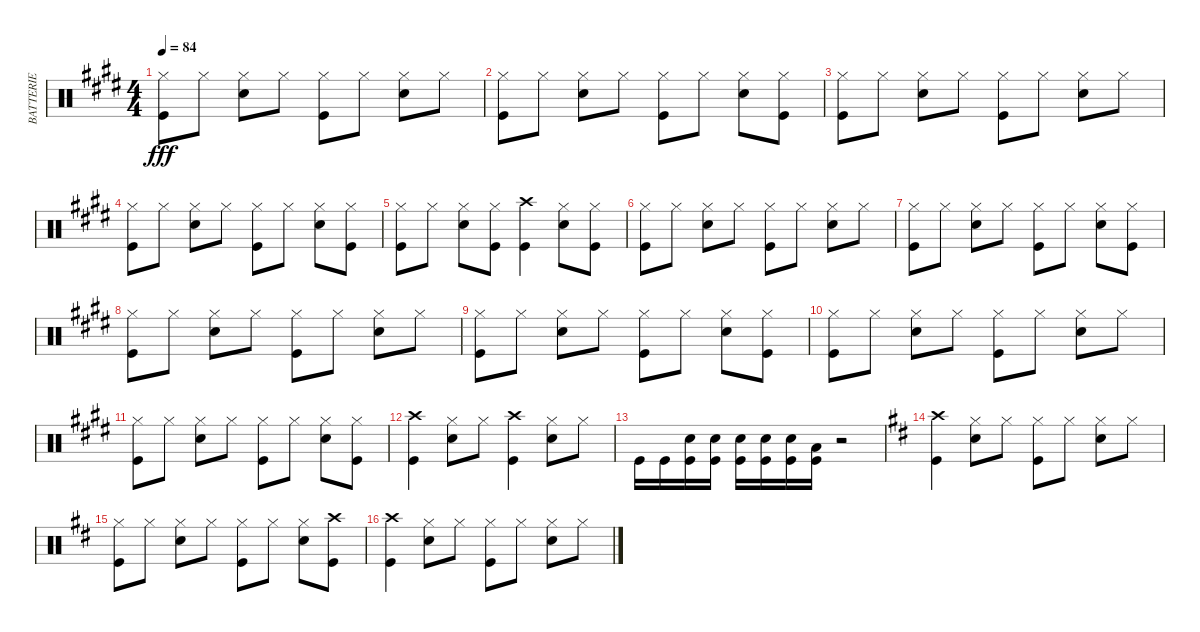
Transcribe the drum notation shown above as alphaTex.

\track ("BATTERIE" "BATTERIE") {instrument percussion}
\staff {score}
\articulation defaults
\ts (4 4)
\tempo 84
\clef neutral
\ks e
("Hi-Hat (closed)" "Kick (hit)").8{dy fff} "Hi-Hat (closed)".8 ("Hi-Hat (closed)" "Snare (hit) 2").8 "Hi-Hat (closed)".8 ("Hi-Hat (closed)" "Kick (hit)").8 "Hi-Hat (closed)".8 ("Hi-Hat (closed)" "Snare (hit) 2").8 "Hi-Hat (closed)".8 |
("Hi-Hat (closed)" "Kick (hit)").8 "Hi-Hat (closed)".8 ("Hi-Hat (closed)" "Snare (hit) 2").8 "Hi-Hat (closed)".8 ("Hi-Hat (closed)" "Kick (hit)").8 "Hi-Hat (closed)".8 ("Hi-Hat (closed)" "Snare (hit) 2").8 ("Hi-Hat (closed)" "Kick (hit)").8 |
("Hi-Hat (closed)" "Kick (hit)").8 "Hi-Hat (closed)".8 ("Hi-Hat (closed)" "Snare (hit) 2").8 "Hi-Hat (closed)".8 ("Hi-Hat (closed)" "Kick (hit)").8 "Hi-Hat (closed)".8 ("Hi-Hat (closed)" "Snare (hit) 2").8 "Hi-Hat (closed)".8 |
("Hi-Hat (closed)" "Kick (hit)").8 "Hi-Hat (closed)".8 ("Hi-Hat (closed)" "Snare (hit) 2").8 "Hi-Hat (closed)".8 ("Hi-Hat (closed)" "Kick (hit)").8 "Hi-Hat (closed)".8 ("Hi-Hat (closed)" "Snare (hit) 2").8 ("Hi-Hat (closed)" "Kick (hit)").8 |
("Hi-Hat (closed)" "Kick (hit)").8 "Hi-Hat (closed)".8 ("Hi-Hat (closed)" "Snare (hit) 2").8 ("Hi-Hat (closed)" "Kick (hit)").8 ("Crash high (hit)" "Kick (hit)").4 ("Hi-Hat (closed)" "Snare (hit) 2").8 ("Hi-Hat (closed)" "Kick (hit)").8 |
("Hi-Hat (closed)" "Kick (hit)").8 "Hi-Hat (closed)".8 ("Hi-Hat (closed)" "Snare (hit) 2").8 "Hi-Hat (closed)".8 ("Hi-Hat (closed)" "Kick (hit)").8 "Hi-Hat (closed)".8 ("Hi-Hat (closed)" "Snare (hit) 2").8 "Hi-Hat (closed)".8 |
("Hi-Hat (closed)" "Kick (hit)").8 "Hi-Hat (closed)".8 ("Hi-Hat (closed)" "Snare (hit) 2").8 "Hi-Hat (closed)".8 ("Hi-Hat (closed)" "Kick (hit)").8 "Hi-Hat (closed)".8 ("Hi-Hat (closed)" "Snare (hit) 2").8 ("Hi-Hat (closed)" "Kick (hit)").8 |
("Hi-Hat (closed)" "Kick (hit)").8 "Hi-Hat (closed)".8 ("Hi-Hat (closed)" "Snare (hit) 2").8 "Hi-Hat (closed)".8 ("Hi-Hat (closed)" "Kick (hit)").8 "Hi-Hat (closed)".8 ("Hi-Hat (closed)" "Snare (hit) 2").8 "Hi-Hat (closed)".8 |
("Hi-Hat (closed)" "Kick (hit)").8 "Hi-Hat (closed)".8 ("Hi-Hat (closed)" "Snare (hit) 2").8 "Hi-Hat (closed)".8 ("Hi-Hat (closed)" "Kick (hit)").8 "Hi-Hat (closed)".8 ("Hi-Hat (closed)" "Snare (hit) 2").8 ("Hi-Hat (closed)" "Kick (hit)").8 |
("Hi-Hat (closed)" "Kick (hit)").8 "Hi-Hat (closed)".8 ("Hi-Hat (closed)" "Snare (hit) 2").8 "Hi-Hat (closed)".8 ("Hi-Hat (closed)" "Kick (hit)").8 "Hi-Hat (closed)".8 ("Hi-Hat (closed)" "Snare (hit) 2").8 "Hi-Hat (closed)".8 |
("Hi-Hat (closed)" "Kick (hit)").8 "Hi-Hat (closed)".8 ("Hi-Hat (closed)" "Snare (hit) 2").8 "Hi-Hat (closed)".8 ("Hi-Hat (closed)" "Kick (hit)").8 "Hi-Hat (closed)".8 ("Hi-Hat (closed)" "Snare (hit) 2").8 ("Hi-Hat (closed)" "Kick (hit)").8 |
("Crash high (hit)" "Kick (hit)").4 ("Hi-Hat (closed)" "Snare (hit) 2").8 "Hi-Hat (closed)".8 ("Crash high (hit)" "Kick (hit)").4 ("Hi-Hat (closed)" "Snare (hit) 2").8 "Hi-Hat (closed)".8 |
"Kick (hit)".16{beam Down} "Kick (hit)".16{beam Down} ("Snare (hit) 2" "Kick (hit)").16{beam Down} ("Snare (hit) 2" "Kick (hit)").16{beam Down} ("Snare (hit) 2" "Kick (hit)").16{beam Down} ("Snare (hit) 2" "Kick (hit)").16{beam Down} ("Snare (hit) 2" "Kick (hit)").16{beam Down} ("Low Tom (hit)" "Kick (hit)").16{beam Down} r.2 |
\ks d
("Crash high (hit)" "Kick (hit)").4 ("Hi-Hat (closed)" "Snare (hit) 2").8 "Hi-Hat (closed)".8 ("Hi-Hat (closed)" "Kick (hit)").8 "Hi-Hat (closed)".8 ("Hi-Hat (closed)" "Snare (hit) 2").8 "Hi-Hat (closed)".8 |
("Hi-Hat (closed)" "Kick (hit)").8 "Hi-Hat (closed)".8 ("Hi-Hat (closed)" "Snare (hit) 2").8 "Hi-Hat (closed)".8 ("Hi-Hat (closed)" "Kick (hit)").8 "Hi-Hat (closed)".8 ("Hi-Hat (closed)" "Snare (hit) 2").8 ("Crash high (hit)" "Kick (hit)").8 |
("Crash high (hit)" "Kick (hit)").4 ("Hi-Hat (closed)" "Snare (hit) 2").8 "Hi-Hat (closed)".8 ("Hi-Hat (closed)" "Kick (hit)").8 "Hi-Hat (closed)".8 ("Hi-Hat (closed)" "Snare (hit) 2").8 "Hi-Hat (closed)".8
